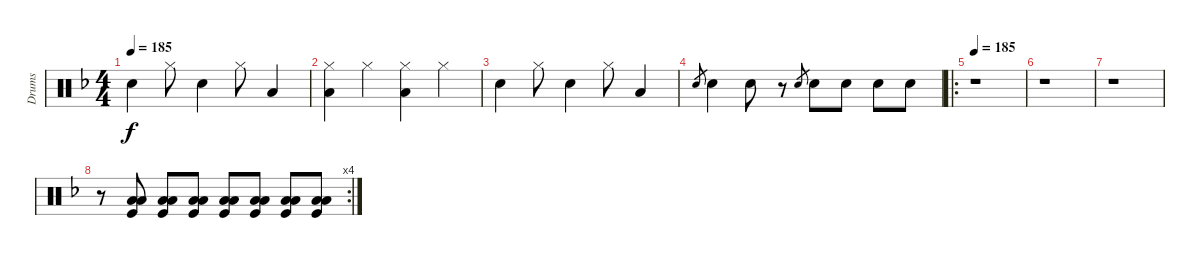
\track ("Drums" "Drums") {instrument percussion}
\staff {score}
\articulation defaults
\ts (4 4)
\tempo 185
\clef neutral
\ks f "Snare (hit) 2".4{dy f} "Hi-Hat (closed)".8 "Snare (hit) 2".4 "Hi-Hat (closed)".8 "Low Floor Tom (hit)".4
|
("Hi-Hat (closed)" "Low Floor Tom (hit)").4 "Hi-Hat (closed)".4 ("Hi-Hat (closed)" "Low Floor Tom (hit)").4 "Hi-Hat (closed)".4 |
"Snare (hit) 2".4 "Hi-Hat (closed)".8 "Snare (hit) 2".4 "Hi-Hat (closed)".8 "Low Floor Tom (hit)".4 |
"Snare (hit) 2".8{gr} "Snare (hit) 2".4 "Snare (hit) 2".8 r.8 "Snare (hit) 2".8{gr} "Snare (hit) 2".8 "Snare (hit) 2".8 "Snare (hit) 2".8 "Snare (hit) 2".8 |
\ro
\tempo 185
r.1 |
r.1 |
r.1 |
\rc 4
r.8 ("Low Floor Tom (hit)" "Low Tom (hit)" "Kick (hit)").8 ("Low Floor Tom (hit)" "Low Tom (hit)" "Kick (hit)").8 ("Low Floor Tom (hit)" "Low Tom (hit)" "Kick (hit)").8 ("Low Floor Tom (hit)" "Low Tom (hit)" "Kick (hit)").8 ("Low Floor Tom (hit)" "Low Tom (hit)" "Kick (hit)").8 ("Low Floor Tom (hit)" "Low Tom (hit)" "Kick (hit)").8 ("Low Floor Tom (hit)" "Low Tom (hit)" "Kick (hit)").8
